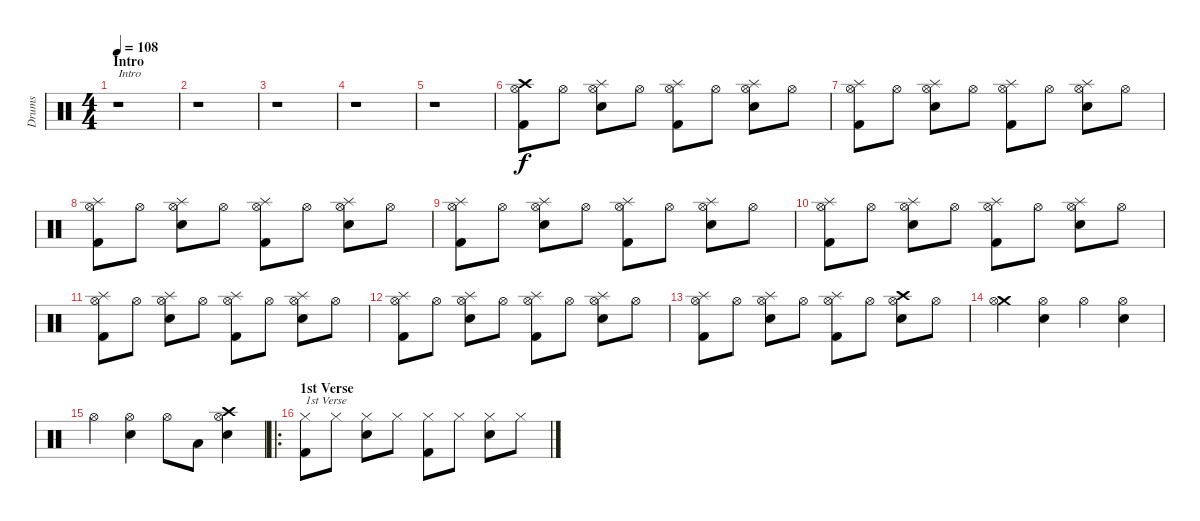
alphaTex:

\track ("Drums" "Drums") {instrument percussion}
\staff {score}
\articulation defaults
\ts (4 4)
\section ("" "Intro")
\tempo 108
\clef neutral
\ks c
r.1{txt "Intro" dy f} |
r.1 |
r.1 |
r.1 |
r.1 |
("Crash high (hit)" "Hi-Hat (open)" "Kick (hit) 2").8 "Hi-Hat (open)".8 ("Splash (hit)" "Hi-Hat (open)" "Snare (hit) 2").8 "Hi-Hat (open)".8 ("Splash (hit)" "Hi-Hat (open)" "Kick (hit) 2").8 "Hi-Hat (open)".8 ("Splash (hit)" "Hi-Hat (open)" "Snare (hit) 2").8 "Hi-Hat (open)".8 |
("Splash (hit)" "Hi-Hat (open)" "Kick (hit) 2").8 "Hi-Hat (open)".8 ("Splash (hit)" "Hi-Hat (open)" "Snare (hit) 2").8 "Hi-Hat (open)".8 ("Splash (hit)" "Hi-Hat (open)" "Kick (hit) 2").8 "Hi-Hat (open)".8 ("Splash (hit)" "Hi-Hat (open)" "Snare (hit) 2").8 "Hi-Hat (open)".8 |
("Splash (hit)" "Hi-Hat (open)" "Kick (hit) 2").8 "Hi-Hat (open)".8 ("Splash (hit)" "Hi-Hat (open)" "Snare (hit) 2").8 "Hi-Hat (open)".8 ("Splash (hit)" "Hi-Hat (open)" "Kick (hit) 2").8 "Hi-Hat (open)".8 ("Splash (hit)" "Hi-Hat (open)" "Snare (hit) 2").8 "Hi-Hat (open)".8 |
("Splash (hit)" "Hi-Hat (open)" "Kick (hit) 2").8 "Hi-Hat (open)".8 ("Splash (hit)" "Hi-Hat (open)" "Snare (hit) 2").8 "Hi-Hat (open)".8 ("Splash (hit)" "Hi-Hat (open)" "Kick (hit) 2").8 "Hi-Hat (open)".8 ("Splash (hit)" "Hi-Hat (open)" "Snare (hit) 2").8 "Hi-Hat (open)".8 |
("Splash (hit)" "Hi-Hat (open)" "Kick (hit) 2").8 "Hi-Hat (open)".8 ("Splash (hit)" "Hi-Hat (open)" "Snare (hit) 2").8 "Hi-Hat (open)".8 ("Splash (hit)" "Hi-Hat (open)" "Kick (hit) 2").8 "Hi-Hat (open)".8 ("Splash (hit)" "Hi-Hat (open)" "Snare (hit) 2").8 "Hi-Hat (open)".8 |
("Splash (hit)" "Hi-Hat (open)" "Kick (hit) 2").8 "Hi-Hat (open)".8 ("Splash (hit)" "Hi-Hat (open)" "Snare (hit) 2").8 "Hi-Hat (open)".8 ("Splash (hit)" "Hi-Hat (open)" "Kick (hit) 2").8 "Hi-Hat (open)".8 ("Splash (hit)" "Hi-Hat (open)" "Snare (hit) 2").8 "Hi-Hat (open)".8 |
("Splash (hit)" "Hi-Hat (open)" "Kick (hit) 2").8 "Hi-Hat (open)".8 ("Splash (hit)" "Hi-Hat (open)" "Snare (hit) 2").8 "Hi-Hat (open)".8 ("Splash (hit)" "Hi-Hat (open)" "Kick (hit) 2").8 "Hi-Hat (open)".8 ("Splash (hit)" "Hi-Hat (open)" "Snare (hit) 2").8 "Hi-Hat (open)".8 |
("Splash (hit)" "Hi-Hat (open)" "Kick (hit) 2").8 "Hi-Hat (open)".8 ("Splash (hit)" "Hi-Hat (open)" "Snare (hit) 2").8 "Hi-Hat (open)".8 ("Splash (hit)" "Hi-Hat (open)" "Kick (hit) 2").8 "Hi-Hat (open)".8 ("Crash high (hit)" "Hi-Hat (open)" "Snare (hit) 2").8 "Hi-Hat (open)".8 |
("Crash medium (hit)" "Hi-Hat (open)").4 ("Hi-Hat (open)" "Snare (hit) 2").4 "Hi-Hat (open)".4 ("Hi-Hat (open)" "Snare (hit) 2").4 |
"Hi-Hat (open)".4 ("Hi-Hat (open)" "Snare (hit) 2").4 "Hi-Hat (open)".8 "Low Floor Tom (hit)".8 ("Crash high (hit)" "Hi-Hat (open)" "Snare (hit) 2").4 |
\ro
\section ("" "1st Verse")
("Hi-Hat (closed)" "Kick (hit) 2").8{txt "1st Verse"} "Hi-Hat (closed)".8 ("Hi-Hat (closed)" "Snare (hit) 2").8 "Hi-Hat (closed)".8 ("Hi-Hat (closed)" "Kick (hit) 2").8 "Hi-Hat (closed)".8 ("Hi-Hat (closed)" "Snare (hit) 2").8 "Hi-Hat (closed)".8
